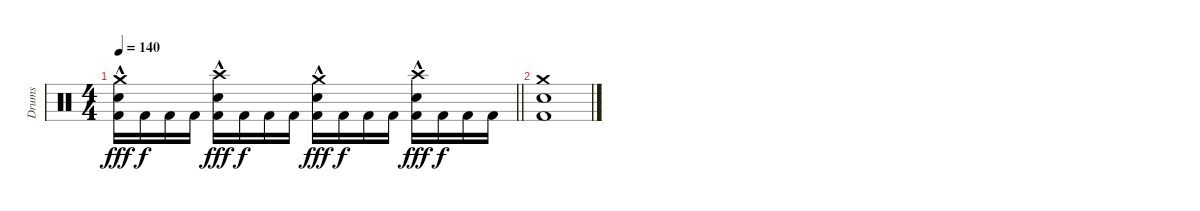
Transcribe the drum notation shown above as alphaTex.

\track ("Drums" "Drums") {instrument percussion}
\staff {score}
\articulation defaults
\ts (4 4)
\tempo 140
\clef neutral
\barLineRight lightlight
\ks c
("Kick (hit) 2" "Snare (hit) 2"{hac} "Crash medium (hit)").16{dy fff} "Kick (hit) 2".16{dy f} "Kick (hit) 2".16 "Kick (hit) 2".16 ("Kick (hit) 2" "Snare (hit) 2"{hac} "Crash high (hit)").16{dy fff} "Kick (hit) 2".16{dy f} "Kick (hit) 2".16 "Kick (hit) 2".16 ("Kick (hit) 2" "Snare (hit) 2"{hac} "Crash medium (hit)").16{dy fff} "Kick (hit) 2".16{dy f} "Kick (hit) 2".16 "Kick (hit) 2".16 ("Kick (hit) 2" "Snare (hit) 2"{hac} "Crash high (hit)").16{dy fff} "Kick (hit) 2".16{dy f} "Kick (hit) 2".16 "Kick (hit) 2".16 |
\section ("" "")
("Kick (hit) 2" "Snare (hit) 2" "Crash medium (hit)").1
